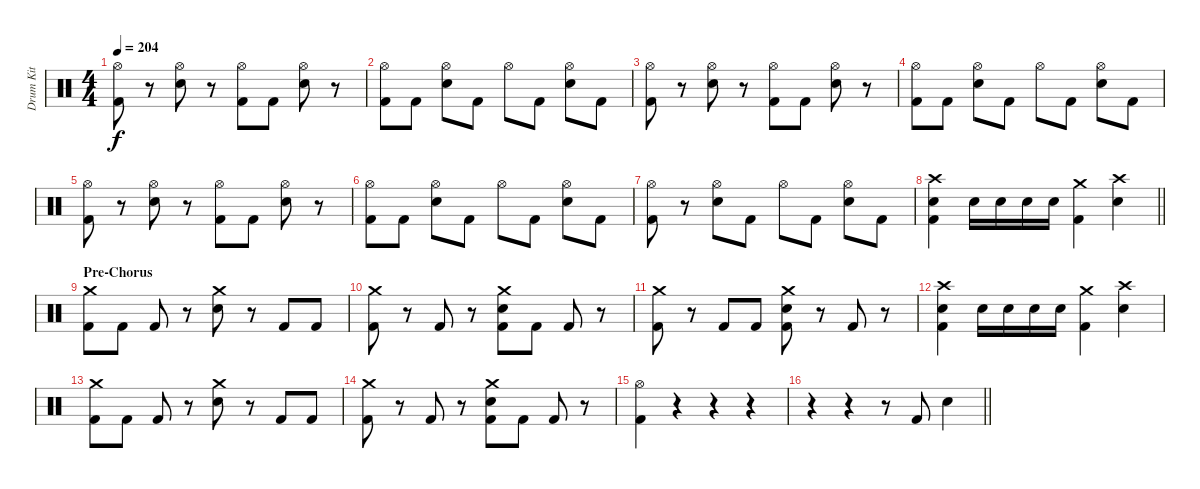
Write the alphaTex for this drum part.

\track ("Drum Kit" "Drum Kit") {instrument percussion}
\staff {score}
\articulation defaults
\ts (4 4)
\tempo 204
\clef neutral
\ks c
("Hi-Hat (open)" "Kick (hit) 2").8{dy f} r.8 ("Hi-Hat (open)" "Snare (hit) 2").8 r.8 ("Hi-Hat (open)" "Kick (hit) 2").8 "Kick (hit) 2".8 ("Hi-Hat (open)" "Snare (hit) 2").8 r.8 |
("Hi-Hat (open)" "Kick (hit) 2").8 "Kick (hit) 2".8 ("Hi-Hat (open)" "Snare (hit) 2").8 "Kick (hit) 2".8 "Hi-Hat (open)".8 "Kick (hit) 2".8 ("Hi-Hat (open)" "Snare (hit) 2").8 "Kick (hit) 2".8 |
("Hi-Hat (open)" "Kick (hit) 2").8 r.8 ("Hi-Hat (open)" "Snare (hit) 2").8 r.8 ("Hi-Hat (open)" "Kick (hit) 2").8 "Kick (hit) 2".8 ("Hi-Hat (open)" "Snare (hit) 2").8 r.8 |
("Hi-Hat (open)" "Kick (hit) 2").8 "Kick (hit) 2".8 ("Hi-Hat (open)" "Snare (hit) 2").8 "Kick (hit) 2".8 "Hi-Hat (open)".8 "Kick (hit) 2".8 ("Hi-Hat (open)" "Snare (hit) 2").8 "Kick (hit) 2".8 |
("Hi-Hat (open)" "Kick (hit) 2").8 r.8 ("Hi-Hat (open)" "Snare (hit) 2").8 r.8 ("Hi-Hat (open)" "Kick (hit) 2").8 "Kick (hit) 2".8 ("Hi-Hat (open)" "Snare (hit) 2").8 r.8 |
("Hi-Hat (open)" "Kick (hit) 2").8 "Kick (hit) 2".8 ("Hi-Hat (open)" "Snare (hit) 2").8 "Kick (hit) 2".8 "Hi-Hat (open)".8 "Kick (hit) 2".8 ("Hi-Hat (open)" "Snare (hit) 2").8 "Kick (hit) 2".8 |
("Hi-Hat (open)" "Kick (hit) 2").8 r.8 ("Hi-Hat (open)" "Snare (hit) 2").8 "Kick (hit) 2".8 "Hi-Hat (open)".8 "Kick (hit) 2".8 ("Hi-Hat (open)" "Snare (hit) 2").8 "Kick (hit) 2".8 |
\barLineRight lightlight
("Crash high (hit)" "Snare (hit) 2" "Kick (hit) 2").4 "Snare (hit) 2".16 "Snare (hit) 2".16 "Snare (hit) 2".16 "Snare (hit) 2".16 ("Crash medium (hit)" "Kick (hit) 2").4 ("Crash high (hit)" "Snare (hit) 2").4 |
\section ("" "Pre-Chorus")
("Crash medium (hit)" "Kick (hit) 2").8 "Kick (hit) 2".8 "Kick (hit) 2".8 r.8 ("Crash medium (hit)" "Snare (hit) 2").8 r.8 "Kick (hit) 2".8 "Kick (hit) 2".8 |
("Crash medium (hit)" "Kick (hit) 2").8 r.8 "Kick (hit) 2".8 r.8 ("Crash medium (hit)" "Snare (hit) 2" "Kick (hit) 2").8 "Kick (hit) 2".8 "Kick (hit) 2".8 r.8 |
("Crash medium (hit)" "Kick (hit) 2").8 r.8 "Kick (hit) 2".8 "Kick (hit) 2".8 ("Crash medium (hit)" "Snare (hit) 2" "Kick (hit) 2").8 r.8 "Kick (hit) 2".8 r.8 |
("Crash high (hit)" "Snare (hit) 2" "Kick (hit) 2").4 "Snare (hit) 2".16 "Snare (hit) 2".16 "Snare (hit) 2".16 "Snare (hit) 2".16 ("Crash medium (hit)" "Kick (hit) 2").4 ("Crash high (hit)" "Snare (hit) 2").4 |
("Crash medium (hit)" "Kick (hit) 2").8 "Kick (hit) 2".8 "Kick (hit) 2".8 r.8 ("Crash medium (hit)" "Snare (hit) 2").8 r.8 "Kick (hit) 2".8 "Kick (hit) 2".8 |
("Crash medium (hit)" "Kick (hit) 2").8 r.8 "Kick (hit) 2".8 r.8 ("Crash medium (hit)" "Snare (hit) 2" "Kick (hit) 2").8 "Kick (hit) 2".8 "Kick (hit) 2".8 r.8 |
("Hi-Hat (open)" "Kick (hit) 2").4 r.4 r.4 r.4 |
\barLineRight lightlight
r.4 r.4 r.8 "Kick (hit) 2".8 "Snare (hit) 2".4
